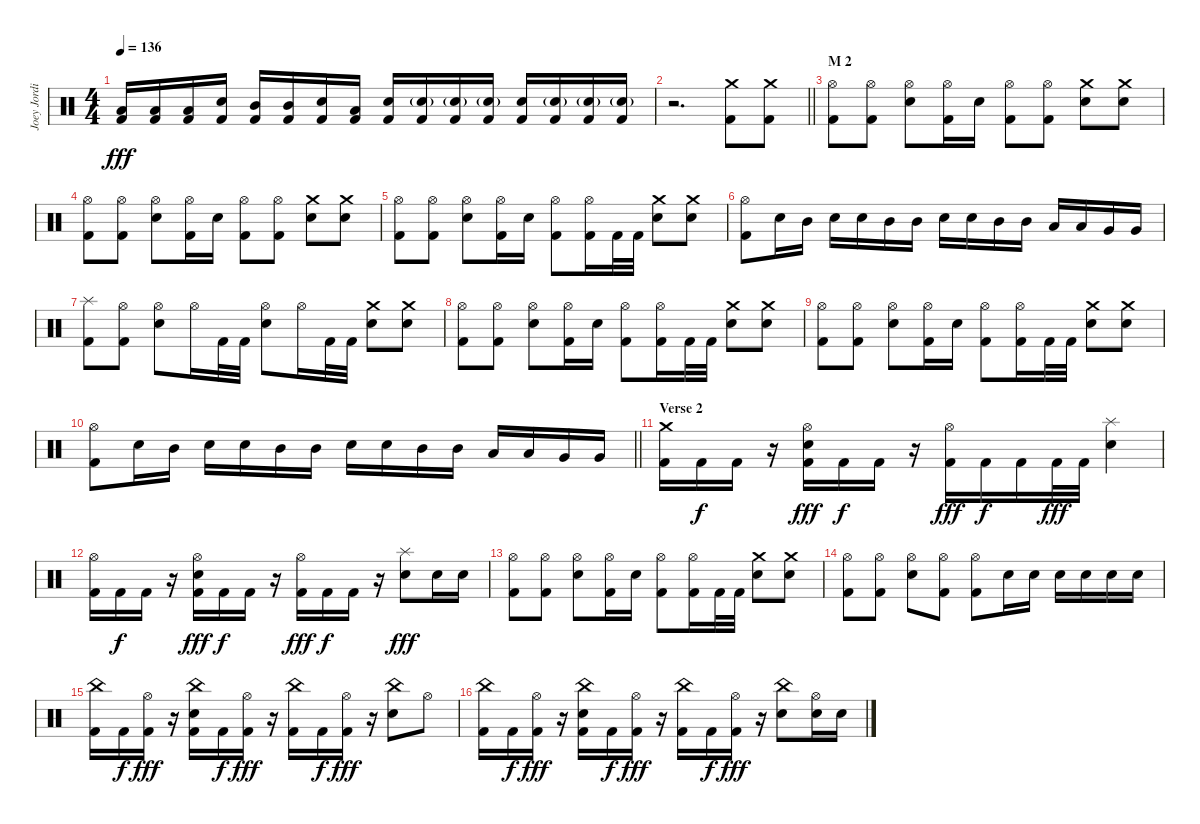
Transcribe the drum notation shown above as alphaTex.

\track ("Joey Jordison" "Joey Jordi") {instrument percussion}
\staff {score}
\articulation defaults
\ts (4 4)
\tempo 136
\clef neutral
\ks c
("Low Tom (hit)" "Kick (hit) 2").16{dy fff} ("Low Tom (hit)" "Kick (hit) 2").16 ("Low Tom (hit)" "Kick (hit) 2").16 ("Electric Snare (hit)" "Kick (hit) 2").16 ("Mid Tom (hit)" "Kick (hit) 2").16 ("Mid Tom (hit)" "Kick (hit) 2").16 ("Electric Snare (hit)" "Kick (hit) 2").16 ("Low Tom (hit)" "Kick (hit) 2").16 ("Electric Snare (hit)" "Kick (hit) 2").16 ("Electric Snare (hit)"{g} "Kick (hit) 2").16 ("Electric Snare (hit)"{g} "Kick (hit) 2").16 ("Electric Snare (hit)"{g} "Kick (hit) 2").16 ("Electric Snare (hit)" "Kick (hit) 2").16 ("Electric Snare (hit)"{g} "Kick (hit) 2").16 ("Electric Snare (hit)"{g} "Kick (hit) 2").16 ("Electric Snare (hit)"{g} "Kick (hit) 2").16 |
\barLineRight lightlight
r.2{d} ("Crash medium (hit)" "Kick (hit) 2").8 ("Crash medium (hit)" "Kick (hit) 2").8 |
\section ("" "M 2")
("Hi-Hat (open)" "Kick (hit) 2").8 ("Hi-Hat (open)" "Kick (hit) 2").8 ("Hi-Hat (open)" "Electric Snare (hit)").8 ("Hi-Hat (open)" "Kick (hit) 2").16 "Electric Snare (hit)".16 ("Hi-Hat (open)" "Kick (hit) 2").8 ("Hi-Hat (open)" "Kick (hit) 2").8 ("Crash medium (hit)" "Electric Snare (hit)").8 ("Crash medium (hit)" "Electric Snare (hit)").8 |
("Hi-Hat (open)" "Kick (hit) 2").8 ("Hi-Hat (open)" "Kick (hit) 2").8 ("Hi-Hat (open)" "Electric Snare (hit)").8 ("Hi-Hat (open)" "Kick (hit) 2").16 "Electric Snare (hit)".16 ("Hi-Hat (open)" "Kick (hit) 2").8 ("Hi-Hat (open)" "Kick (hit) 2").8 ("Crash medium (hit)" "Electric Snare (hit)").8 ("Crash medium (hit)" "Electric Snare (hit)").8 |
("Hi-Hat (open)" "Kick (hit) 2").8 ("Hi-Hat (open)" "Kick (hit) 2").8 ("Hi-Hat (open)" "Electric Snare (hit)").8 ("Hi-Hat (open)" "Kick (hit) 2").16 "Electric Snare (hit)".16 ("Hi-Hat (open)" "Kick (hit) 2").8 ("Hi-Hat (open)" "Kick (hit) 2").16 "Kick (hit) 2".32 "Kick (hit) 2".32 ("Crash medium (hit)" "Electric Snare (hit)").8 ("Crash medium (hit)" "Electric Snare (hit)").8 |
("Hi-Hat (open)" "Kick (hit) 2").8 "Electric Snare (hit)".16 "Mid Tom (hit)".16 "Electric Snare (hit)".16 "Electric Snare (hit)".16 "Mid Tom (hit)".16 "Mid Tom (hit)".16 "Electric Snare (hit)".16 "Electric Snare (hit)".16 "Mid Tom (hit)".16 "Mid Tom (hit)".16 "Low Tom (hit)".16 "Low Tom (hit)".16 "Very Low Tom (hit)".16 "Very Low Tom (hit)".16 |
("Splash (hit)" "Kick (hit) 2").8 ("Hi-Hat (open)" "Kick (hit) 2").8 ("Hi-Hat (open)" "Electric Snare (hit)").8 "Hi-Hat (open)".16 "Kick (hit) 2".32 "Kick (hit) 2".32 ("Hi-Hat (open)" "Electric Snare (hit)").8 "Hi-Hat (open)".16 "Kick (hit) 2".32 "Kick (hit) 2".32 ("Crash medium (hit)" "Electric Snare (hit)").8 ("Crash medium (hit)" "Electric Snare (hit)").8 |
("Hi-Hat (open)" "Kick (hit) 2").8 ("Hi-Hat (open)" "Kick (hit) 2").8 ("Hi-Hat (open)" "Electric Snare (hit)").8 ("Hi-Hat (open)" "Kick (hit) 2").16 "Electric Snare (hit)".16 ("Hi-Hat (open)" "Kick (hit) 2").8 ("Hi-Hat (open)" "Kick (hit) 2").16 "Kick (hit) 2".32 "Kick (hit) 2".32 ("Crash medium (hit)" "Electric Snare (hit)").8 ("Crash medium (hit)" "Electric Snare (hit)").8 |
("Hi-Hat (open)" "Kick (hit) 2").8 ("Hi-Hat (open)" "Kick (hit) 2").8 ("Hi-Hat (open)" "Electric Snare (hit)").8 ("Hi-Hat (open)" "Kick (hit) 2").16 "Electric Snare (hit)".16 ("Hi-Hat (open)" "Kick (hit) 2").8 ("Hi-Hat (open)" "Kick (hit) 2").16 "Kick (hit) 2".32 "Kick (hit) 2".32 ("Crash medium (hit)" "Electric Snare (hit)").8 ("Crash medium (hit)" "Electric Snare (hit)").8 |
\barLineRight lightlight
("Hi-Hat (open)" "Kick (hit) 2").8 "Electric Snare (hit)".16 "Mid Tom (hit)".16 "Electric Snare (hit)".16 "Electric Snare (hit)".16 "Mid Tom (hit)".16 "Mid Tom (hit)".16 "Electric Snare (hit)".16 "Electric Snare (hit)".16 "Mid Tom (hit)".16 "Mid Tom (hit)".16 "Low Tom (hit)".16 "Low Tom (hit)".16 "Very Low Tom (hit)".16 "Very Low Tom (hit)".16 |
\section ("" "Verse 2")
("Crash medium (hit)" "Kick (hit) 2").16 "Kick (hit) 2".16{dy f} "Kick (hit) 2".16 r.16 ("Hi-Hat (open)" "Electric Snare (hit)" "Kick (hit) 2").16{dy fff} "Kick (hit) 2".16{dy f} "Kick (hit) 2".16 r.16 ("Hi-Hat (open)" "Kick (hit) 2").16{dy fff} "Kick (hit) 2".16{dy f} "Kick (hit) 2".16 "Kick (hit) 2".32{dy fff} "Kick (hit) 2".32 ("Splash (hit)" "Electric Snare (hit)").4 |
("Hi-Hat (open)" "Kick (hit) 2").16 "Kick (hit) 2".16{dy f} "Kick (hit) 2".16 r.16 ("Hi-Hat (open)" "Electric Snare (hit)" "Kick (hit) 2").16{dy fff} "Kick (hit) 2".16{dy f} "Kick (hit) 2".16 r.16 ("Hi-Hat (open)" "Kick (hit) 2").16{dy fff} "Kick (hit) 2".16{dy f} "Kick (hit) 2".16 r.16 ("Splash (hit)" "Electric Snare (hit)").8{dy fff} "Electric Snare (hit)".16 "Electric Snare (hit)".16 |
("Hi-Hat (open)" "Kick (hit) 2").8 ("Hi-Hat (open)" "Kick (hit) 2").8 ("Hi-Hat (open)" "Electric Snare (hit)").8 ("Hi-Hat (open)" "Kick (hit) 2").16 "Electric Snare (hit)".16 ("Hi-Hat (open)" "Kick (hit) 2").8 ("Hi-Hat (open)" "Kick (hit) 2").16 "Kick (hit) 2".32 "Kick (hit) 2".32 ("Crash medium (hit)" "Electric Snare (hit)").8 ("Crash medium (hit)" "Electric Snare (hit)").8 |
("Hi-Hat (open)" "Kick (hit) 2").8 ("Hi-Hat (open)" "Kick (hit) 2").8 ("Hi-Hat (open)" "Electric Snare (hit)").8 ("Hi-Hat (open)" "Kick (hit) 2").8 ("Hi-Hat (open)" "Kick (hit) 2").8 "Electric Snare (hit)".16 "Electric Snare (hit)".16 "Electric Snare (hit)".16 "Electric Snare (hit)".16 "Electric Snare (hit)".16 "Electric Snare (hit)".16 |
("China (hit)" "Kick (hit) 2").16 "Kick (hit) 2".16{dy f} ("Hi-Hat (open)" "Kick (hit) 2").16{dy fff} r.16 ("China (hit)" "Electric Snare (hit)" "Kick (hit) 2").16 "Kick (hit) 2".16{dy f} ("Hi-Hat (open)" "Kick (hit) 2").16{dy fff} r.16 ("China (hit)" "Kick (hit) 2").16 "Kick (hit) 2".16{dy f} ("Hi-Hat (open)" "Kick (hit) 2").16{dy fff} r.16 ("China (hit)" "Electric Snare (hit)").8 "Hi-Hat (open)".8 |
("China (hit)" "Kick (hit) 2").16 "Kick (hit) 2".16{dy f} ("Hi-Hat (open)" "Kick (hit) 2").16{dy fff} r.16 ("China (hit)" "Electric Snare (hit)" "Kick (hit) 2").16 "Kick (hit) 2".16{dy f} ("Hi-Hat (open)" "Kick (hit) 2").16{dy fff} r.16 ("China (hit)" "Kick (hit) 2").16 "Kick (hit) 2".16{dy f} ("Hi-Hat (open)" "Kick (hit) 2").16{dy fff} r.16 ("China (hit)" "Electric Snare (hit)").8 ("Hi-Hat (open)" "Electric Snare (hit)").16 "Electric Snare (hit)".16
